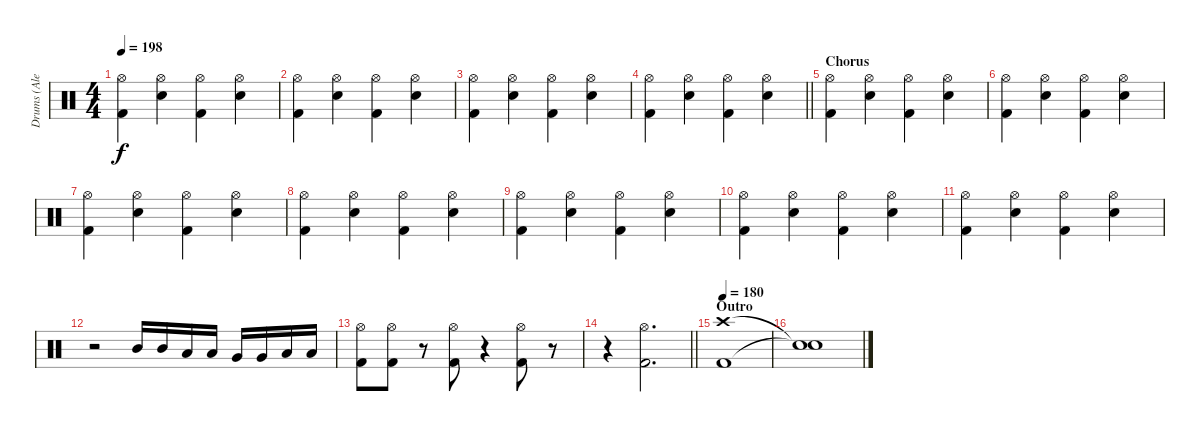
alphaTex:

\track ("Drums (Alex Van Halen)" "Drums (Ale") {instrument percussion}
\staff {score}
\articulation defaults
\ts (4 4)
\tempo 198
\clef neutral
\ks c
("Kick (hit) 2" "Hi-Hat (open)").4{dy f} ("Snare (hit) 2" "Hi-Hat (open)").4 ("Kick (hit) 2" "Hi-Hat (open)").4 ("Snare (hit) 2" "Hi-Hat (open)").4 |
("Kick (hit) 2" "Hi-Hat (open)").4 ("Snare (hit) 2" "Hi-Hat (open)").4 ("Kick (hit) 2" "Hi-Hat (open)").4 ("Snare (hit) 2" "Hi-Hat (open)").4 |
("Kick (hit) 2" "Hi-Hat (open)").4 ("Snare (hit) 2" "Hi-Hat (open)").4 ("Kick (hit) 2" "Hi-Hat (open)").4 ("Snare (hit) 2" "Hi-Hat (open)").4 |
\barLineRight lightlight
("Kick (hit) 2" "Hi-Hat (open)").4 ("Snare (hit) 2" "Hi-Hat (open)").4 ("Kick (hit) 2" "Hi-Hat (open)").4 ("Snare (hit) 2" "Hi-Hat (open)").4 |
\section ("" "Chorus")
("Kick (hit) 2" "Hi-Hat (open)").4 ("Snare (hit) 2" "Hi-Hat (open)").4 ("Kick (hit) 2" "Hi-Hat (open)").4 ("Snare (hit) 2" "Hi-Hat (open)").4 |
("Kick (hit) 2" "Hi-Hat (open)").4 ("Snare (hit) 2" "Hi-Hat (open)").4 ("Kick (hit) 2" "Hi-Hat (open)").4 ("Snare (hit) 2" "Hi-Hat (open)").4 |
("Kick (hit) 2" "Hi-Hat (open)").4 ("Snare (hit) 2" "Hi-Hat (open)").4 ("Kick (hit) 2" "Hi-Hat (open)").4 ("Snare (hit) 2" "Hi-Hat (open)").4 |
("Kick (hit) 2" "Hi-Hat (open)").4 ("Snare (hit) 2" "Hi-Hat (open)").4 ("Kick (hit) 2" "Hi-Hat (open)").4 ("Snare (hit) 2" "Hi-Hat (open)").4 |
("Kick (hit) 2" "Hi-Hat (open)").4 ("Snare (hit) 2" "Hi-Hat (open)").4 ("Kick (hit) 2" "Hi-Hat (open)").4 ("Snare (hit) 2" "Hi-Hat (open)").4 |
("Kick (hit) 2" "Hi-Hat (open)").4 ("Snare (hit) 2" "Hi-Hat (open)").4 ("Kick (hit) 2" "Hi-Hat (open)").4 ("Snare (hit) 2" "Hi-Hat (open)").4 |
("Kick (hit) 2" "Hi-Hat (open)").4 ("Snare (hit) 2" "Hi-Hat (open)").4 ("Kick (hit) 2" "Hi-Hat (open)").4 ("Snare (hit) 2" "Hi-Hat (open)").4 |
r.2 "Mid Tom (hit)".16 "Mid Tom (hit)".16 "Low Tom (hit)".16 "Low Tom (hit)".16 "Very Low Tom (hit)".16 "Very Low Tom (hit)".16 "Low Floor Tom (hit)".16 "Low Floor Tom (hit)".16 |
("Kick (hit) 2" "Hi-Hat (open)").8 ("Kick (hit) 2" "Hi-Hat (open)").8 r.8 ("Kick (hit) 2" "Hi-Hat (open)").8 r.4 ("Kick (hit) 2" "Hi-Hat (open)").8 r.8 |
\barLineRight lightlight
r.4 ("Kick (hit) 2" "Hi-Hat (open)").2{d} |
\section ("" "Outro")
\tempo 180
("Kick (hit) 2" "Crash high (hit)").1 |
("Snare (hit)"{t} "Snare (hit)"{t}).1
